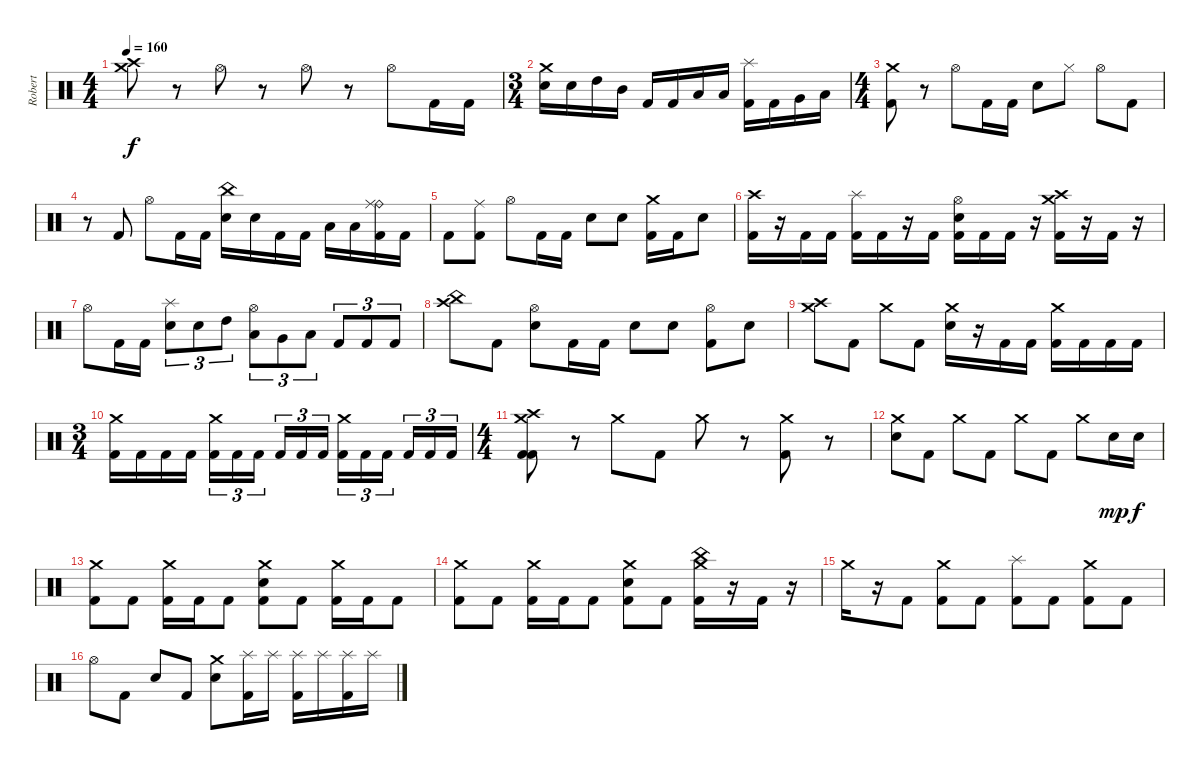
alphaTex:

\track ("Robert" "Robert") {instrument percussion}
\staff {score}
\articulation defaults
\ts (4 4)
\tempo 160
\clef neutral
\ks c
("Crash medium (hit)" "Crash high (hit)").8{dy f} r.8 "Hi-Hat (open)".8 r.8 "Hi-Hat (open)".8 r.8 "Hi-Hat (open)".8 "Kick (hit) 2".16 "Kick (hit) 2".16 |
\ts (3 4)
("Electric Snare (hit)" "Crash medium (hit)").16 "Electric Snare (hit)".16 "High Tom (hit)".16 "Mid Tom (hit)".16 "Kick (hit) 2".16 "Kick (hit) 2".16 "Low Tom (hit)".16 "Low Tom (hit)".16 ("Kick (hit) 2" "Splash (hit)").16 "Kick (hit) 2".16 "Very Low Tom (hit)".16 "Low Floor Tom (hit)".16 |
\ts (4 4)
("Crash medium (hit)" "Kick (hit) 2").8 r.8 "Hi-Hat (open)".8 "Kick (hit) 2".16 "Kick (hit) 2".16 "Electric Snare (hit)".8 "Hi-Hat (closed)".8 "Hi-Hat (open)".8 "Kick (hit) 2".8 |
r.8 "Kick (hit) 2".8 "Hi-Hat (open)".8 "Kick (hit) 2".16 "Kick (hit) 2".16 ("China (hit)" "Electric Snare (hit)").16 "Electric Snare (hit)".16 "Kick (hit) 2".16 "Kick (hit) 2".16 "Low Tom (hit)".16 "Low Tom (hit)".16 ("Kick (hit) 2" "Ride (bell)" "Ride (middle)").16 "Kick (hit) 2".16 |
"Kick (hit) 2".8 ("Kick (hit) 2" "Ride (middle)").8 "Hi-Hat (open)".8 "Kick (hit) 2".16 "Kick (hit) 2".16 "Electric Snare (hit)".8 "Electric Snare (hit)".8 ("Crash medium (hit)" "Kick (hit) 2").16 "Kick (hit) 2".16 "Electric Snare (hit)".8 |
("Crash high (hit)" "Kick (hit) 2").16 r.16 "Kick (hit) 2".16 "Kick (hit) 2".16 ("Splash (hit)" "Kick (hit) 2").16 "Kick (hit) 2".16 r.16 "Kick (hit) 2".16 ("Hi-Hat (open)" "Electric Snare (hit)" "Kick (hit) 2").16 "Kick (hit) 2".16 "Kick (hit) 2".16 r.16 ("Kick (hit) 2" "Crash medium (hit)" "Crash high (hit)").16 r.16 "Kick (hit) 2".16 r.16 |
"Hi-Hat (open)".8 "Kick (hit) 2".16 "Kick (hit) 2".16 ("Splash (hit)" "Electric Snare (hit)").8{tu (3 2)} "Electric Snare (hit)".8{tu (3 2)} "High Tom (hit)".8{tu (3 2)} ("Hi-Hat (open)" "Low Tom (hit)").8{tu (3 2)} "Very Low Tom (hit)".8{tu (3 2)} "Low Floor Tom (hit)".8{tu (3 2)} "Kick (hit) 2".8{tu (3 2)} "Kick (hit) 2".8{tu (3 2)} "Kick (hit) 2".8{tu (3 2)} |
("China (hit)" "Crash high (hit)").8 "Kick (hit) 2".8 ("Hi-Hat (open)" "Electric Snare (hit)").8 "Kick (hit) 2".16 "Kick (hit) 2".16 "Electric Snare (hit)".8 "Electric Snare (hit)".8 ("Hi-Hat (open)" "Kick (hit) 2").8 "Electric Snare (hit)".8 |
("Crash medium (hit)" "Crash high (hit)").8 "Kick (hit) 2".8 "Crash medium (hit)".8 "Kick (hit) 2".8 ("Electric Snare (hit)" "Crash medium (hit)").16 r.16 "Kick (hit) 2".16 "Kick (hit) 2".16 ("Crash medium (hit)" "Kick (hit) 2").16 "Kick (hit) 2".16 "Kick (hit) 2".16 "Kick (hit) 2".16 |
\ts (3 4)
("Crash medium (hit)" "Kick (hit) 2").16 "Kick (hit) 2".16 "Kick (hit) 2".16 "Kick (hit) 2".16 ("Crash medium (hit)" "Kick (hit) 2").16{tu (3 2)} "Kick (hit) 2".16{tu (3 2)} "Kick (hit) 2".16{tu (3 2) beam splitsecondary} "Kick (hit) 2".16{tu (3 2)} "Kick (hit) 2".16{tu (3 2)} "Kick (hit) 2".16{tu (3 2)} ("Crash medium (hit)" "Kick (hit) 2").16{tu (3 2)} "Kick (hit) 2".16{tu (3 2)} "Kick (hit) 2".16{tu (3 2) beam splitsecondary} "Kick (hit) 2".16{tu (3 2)} "Kick (hit) 2".16{tu (3 2)} "Kick (hit) 2".16{tu (3 2)} |
\ts (4 4)
("Crash high (hit)" "Crash medium (hit)" "Kick (hit) 2" "Kick (hit) 2").8 r.8 "Crash medium (hit)".8 "Kick (hit) 2".8 "Crash medium (hit)".8 r.8 ("Crash medium (hit)" "Kick (hit) 2").8 r.8 |
("Electric Snare (hit)" "Crash medium (hit)").8 "Kick (hit) 2".8 "Crash medium (hit)".8 "Kick (hit) 2".8 "Crash medium (hit)".8 "Kick (hit) 2".8 "Crash medium (hit)".8 "Electric Snare (hit)".16{dy mp} "Electric Snare (hit)".16{dy f} |
("Kick (hit) 2" "Crash medium (hit)").8 "Kick (hit) 2".8 ("Kick (hit) 2" "Crash medium (hit)").16 "Kick (hit) 2".16 "Kick (hit) 2".8 ("Kick (hit) 2" "Electric Snare (hit)" "Crash medium (hit)").8 "Kick (hit) 2".8 ("Kick (hit) 2" "Crash medium (hit)").16 "Kick (hit) 2".16 "Kick (hit) 2".8 |
("Kick (hit) 2" "Crash medium (hit)").8 "Kick (hit) 2".8 ("Kick (hit) 2" "Crash medium (hit)").16 "Kick (hit) 2".16 "Kick (hit) 2".8 ("Kick (hit) 2" "Electric Snare (hit)" "Crash medium (hit)").8 "Kick (hit) 2".8 ("Kick (hit) 2" "China (hit)" "Crash medium (hit)").16 r.16 "Kick (hit) 2".16 r.16 |
"Crash medium (hit)".16 r.16 "Kick (hit) 2".8 ("Crash medium (hit)" "Kick (hit) 2").8 "Kick (hit) 2".8 ("Splash (hit)" "Kick (hit) 2").8 "Kick (hit) 2".8 ("Crash medium (hit)" "Kick (hit) 2").8 "Kick (hit) 2".8 |
"Hi-Hat (open)".8 "Kick (hit) 2".8 "Electric Snare (hit)".8 "Kick (hit) 2".8 ("Electric Snare (hit)" "Crash medium (hit)").8 ("Splash (hit)" "Kick (hit) 2").16 "Splash (hit)".16 ("Splash (hit)" "Kick (hit) 2").16 "Splash (hit)".16 ("Splash (hit)" "Kick (hit) 2").16 "Splash (hit)".16
